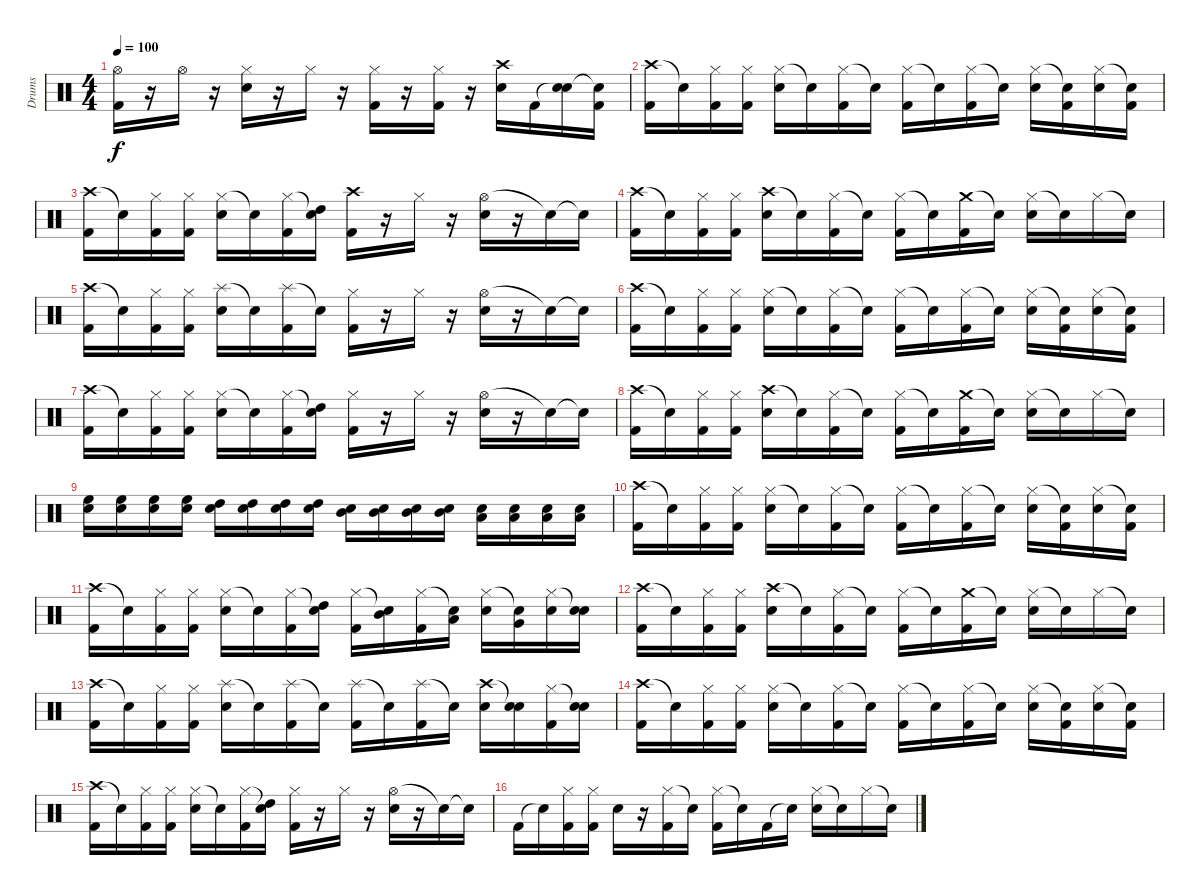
\track ("Drums" "Drums") {instrument percussion}
\staff {score}
\articulation defaults
\ts (4 4)
\tempo 100
\clef neutral
\ks c
("Hi-Hat (open)" "Kick (hit) 2").16{dy f} r.16 "Hi-Hat (open)".16 r.16 ("Hi-Hat (closed)" "Electric Snare (hit)").16 r.16 "Hi-Hat (closed)".16 r.16 ("Hi-Hat (closed)" "Kick (hit) 2").16 r.16 ("Hi-Hat (closed)" "Kick (hit) 2").16 r.16 ("Crash high (hit)" "Electric Snare (hit)").16 "Kick (hit) 2".16 ("Snare (hit)"{t} "Electric Snare (hit)").16 ("Snare (hit)"{t} "Kick (hit) 2").16 |
("Crash high (hit)" "Kick (hit) 2").16 "Snare (hit)"{t}.16 ("Hi-Hat (closed)" "Kick (hit) 2").16 ("Hi-Hat (closed)" "Kick (hit) 2").16 ("Hi-Hat (closed)" "Electric Snare (hit)").16 "Snare (hit)"{t}.16 ("Hi-Hat (closed)" "Kick (hit) 2").16 "Snare (hit)"{t}.16 ("Hi-Hat (closed)" "Kick (hit) 2").16 "Snare (hit)"{t}.16 ("Hi-Hat (closed)" "Kick (hit) 2").16 "Snare (hit)"{t}.16 ("Hi-Hat (closed)" "Electric Snare (hit)").16 ("Snare (hit)"{t} "Kick (hit) 2").16 ("Hi-Hat (closed)" "Electric Snare (hit)").16 ("Snare (hit)"{t} "Kick (hit) 2").16 |
("Crash high (hit)" "Kick (hit) 2").16 "Snare (hit)"{t}.16 ("Hi-Hat (closed)" "Kick (hit) 2").16 ("Hi-Hat (closed)" "Kick (hit) 2").16 ("Hi-Hat (closed)" "Electric Snare (hit)").16 "Snare (hit)"{t}.16 ("Hi-Hat (closed)" "Kick (hit) 2").16 ("Snare (hit)"{t} "High Tom (hit)").16 ("Crash high (hit)" "Kick (hit) 2").16 r.16 "Hi-Hat (closed)".16 r.16 ("Hi-Hat (open)" "Electric Snare (hit)").16 r.16 "Snare (hit)"{t}.16 "Snare (hit)"{t}.16 |
("Crash high (hit)" "Kick (hit) 2").16 "Snare (hit)"{t}.16 ("Hi-Hat (closed)" "Kick (hit) 2").16 ("Hi-Hat (closed)" "Kick (hit) 2").16 ("Crash high (hit)" "Electric Snare (hit)").16 "Snare (hit)"{t}.16 ("Hi-Hat (closed)" "Kick (hit) 2").16 "Snare (hit)"{t}.16 ("Hi-Hat (closed)" "Kick (hit) 2").16 "Snare (hit)"{t}.16 ("Crash medium (hit)" "Kick (hit) 2").16 "Snare (hit)"{t}.16 ("Hi-Hat (closed)" "Electric Snare (hit)").16 "Snare (hit)"{t}.16 "Hi-Hat (closed)".16 "Snare (hit)"{t}.16 |
("Crash high (hit)" "Kick (hit) 2").16 "Snare (hit)"{t}.16 ("Hi-Hat (closed)" "Kick (hit) 2").16 ("Hi-Hat (closed)" "Kick (hit) 2").16 ("Splash (hit)" "Electric Snare (hit)").16 "Snare (hit)"{t}.16 ("Splash (hit)" "Kick (hit) 2").16 "Snare (hit)"{t}.16 ("Hi-Hat (closed)" "Kick (hit) 2").16 r.16 "Hi-Hat (closed)".16 r.16 ("Hi-Hat (open)" "Electric Snare (hit)").16 r.16 "Snare (hit)"{t}.16 "Snare (hit)"{t}.16 |
("Crash high (hit)" "Kick (hit) 2").16 "Snare (hit)"{t}.16 ("Hi-Hat (closed)" "Kick (hit) 2").16 ("Hi-Hat (closed)" "Kick (hit) 2").16 ("Hi-Hat (closed)" "Electric Snare (hit)").16 "Snare (hit)"{t}.16 ("Hi-Hat (closed)" "Kick (hit) 2").16 "Snare (hit)"{t}.16 ("Hi-Hat (closed)" "Kick (hit) 2").16 "Snare (hit)"{t}.16 ("Hi-Hat (closed)" "Kick (hit) 2").16 "Snare (hit)"{t}.16 ("Hi-Hat (closed)" "Electric Snare (hit)").16 ("Snare (hit)"{t} "Kick (hit) 2").16 ("Hi-Hat (closed)" "Electric Snare (hit)").16 ("Snare (hit)"{t} "Kick (hit) 2").16 |
("Crash high (hit)" "Kick (hit) 2").16 "Snare (hit)"{t}.16 ("Hi-Hat (closed)" "Kick (hit) 2").16 ("Hi-Hat (closed)" "Kick (hit) 2").16 ("Hi-Hat (closed)" "Electric Snare (hit)").16 "Snare (hit)"{t}.16 ("Hi-Hat (closed)" "Kick (hit) 2").16 ("Snare (hit)"{t} "High Tom (hit)").16 ("Hi-Hat (closed)" "Kick (hit) 2").16 r.16 "Hi-Hat (closed)".16 r.16 ("Hi-Hat (open)" "Electric Snare (hit)").16 r.16 "Snare (hit)"{t}.16 "Snare (hit)"{t}.16 |
("Crash high (hit)" "Kick (hit) 2").16 "Snare (hit)"{t}.16 ("Hi-Hat (closed)" "Kick (hit) 2").16 ("Hi-Hat (closed)" "Kick (hit) 2").16 ("Crash high (hit)" "Electric Snare (hit)").16 "Snare (hit)"{t}.16 ("Hi-Hat (closed)" "Kick (hit) 2").16 "Snare (hit)"{t}.16 ("Hi-Hat (closed)" "Kick (hit) 2").16 "Snare (hit)"{t}.16 ("Crash medium (hit)" "Kick (hit) 2").16 "Snare (hit)"{t}.16 ("Hi-Hat (closed)" "Electric Snare (hit)").16 "Snare (hit)"{t}.16 "Hi-Hat (closed)".16 "Snare (hit)"{t}.16 |
("High Floor Tom (hit)" "Electric Snare (hit)").16 ("High Floor Tom (hit)" "Electric Snare (hit)").16 ("High Floor Tom (hit)" "Electric Snare (hit)").16 ("High Floor Tom (hit)" "Electric Snare (hit)").16 ("High Tom (hit)" "Electric Snare (hit)").16 ("High Tom (hit)" "Electric Snare (hit)").16 ("High Tom (hit)" "Electric Snare (hit)").16 ("High Tom (hit)" "Electric Snare (hit)").16 ("Mid Tom (hit)" "Electric Snare (hit)").16 ("Mid Tom (hit)" "Electric Snare (hit)").16 ("Mid Tom (hit)" "Electric Snare (hit)").16 ("Mid Tom (hit)" "Electric Snare (hit)").16 ("Low Tom (hit)" "Electric Snare (hit)").16 ("Low Tom (hit)" "Electric Snare (hit)").16 ("Low Tom (hit)" "Electric Snare (hit)").16 ("Low Tom (hit)" "Electric Snare (hit)").16 |
("Crash high (hit)" "Kick (hit) 2").16 "Snare (hit)"{t}.16 ("Hi-Hat (closed)" "Kick (hit) 2").16 ("Hi-Hat (closed)" "Kick (hit) 2").16 ("Hi-Hat (closed)" "Electric Snare (hit)").16 "Snare (hit)"{t}.16 ("Hi-Hat (closed)" "Kick (hit) 2").16 "Snare (hit)"{t}.16 ("Hi-Hat (closed)" "Kick (hit) 2").16 "Snare (hit)"{t}.16 ("Hi-Hat (closed)" "Kick (hit) 2").16 "Snare (hit)"{t}.16 ("Hi-Hat (closed)" "Electric Snare (hit)").16 ("Snare (hit)"{t} "Kick (hit) 2").16 ("Hi-Hat (closed)" "Electric Snare (hit)").16 ("Snare (hit)"{t} "Kick (hit) 2").16 |
("Crash high (hit)" "Kick (hit) 2").16 "Snare (hit)"{t}.16 ("Hi-Hat (closed)" "Kick (hit) 2").16 ("Hi-Hat (closed)" "Kick (hit) 2").16 ("Hi-Hat (closed)" "Electric Snare (hit)").16 "Snare (hit)"{t}.16 ("Hi-Hat (closed)" "Kick (hit) 2").16 ("Snare (hit)"{t} "High Tom (hit)").16 ("Hi-Hat (closed)" "Kick (hit) 2").16 ("Snare (hit)"{t} "Mid Tom (hit)").16 ("Hi-Hat (closed)" "Kick (hit) 2").16 ("Snare (hit)"{t} "Low Tom (hit)").16 ("Hi-Hat (closed)" "Electric Snare (hit)").16 ("Snare (hit)"{t} "Very Low Tom (hit)").16 ("Hi-Hat (closed)" "Electric Snare (hit)").16 ("Snare (hit)"{t} "Electric Snare (hit)").16 |
("Crash high (hit)" "Kick (hit) 2").16 "Snare (hit)"{t}.16 ("Hi-Hat (closed)" "Kick (hit) 2").16 ("Hi-Hat (closed)" "Kick (hit) 2").16 ("Crash high (hit)" "Electric Snare (hit)").16 "Snare (hit)"{t}.16 ("Hi-Hat (closed)" "Kick (hit) 2").16 "Snare (hit)"{t}.16 ("Hi-Hat (closed)" "Kick (hit) 2").16 "Snare (hit)"{t}.16 ("Crash medium (hit)" "Kick (hit) 2").16 "Snare (hit)"{t}.16 ("Hi-Hat (closed)" "Electric Snare (hit)").16 "Snare (hit)"{t}.16 "Hi-Hat (closed)".16 "Snare (hit)"{t}.16 |
("Crash high (hit)" "Kick (hit) 2").16 "Snare (hit)"{t}.16 ("Hi-Hat (closed)" "Kick (hit) 2").16 ("Hi-Hat (closed)" "Kick (hit) 2").16 ("Splash (hit)" "Electric Snare (hit)").16 "Snare (hit)"{t}.16 ("Splash (hit)" "Kick (hit) 2").16 "Snare (hit)"{t}.16 ("Splash (hit)" "Kick (hit) 2").16 "Snare (hit)"{t}.16 ("Splash (hit)" "Kick (hit) 2").16 "Snare (hit)"{t}.16 ("Crash high (hit)" "Electric Snare (hit)").16 ("Snare (hit)"{t} "Electric Snare (hit)").16 ("Hi-Hat (closed)" "Kick (hit) 2").16 ("Snare (hit)"{t} "Electric Snare (hit)").16 |
("Crash high (hit)" "Kick (hit) 2").16 "Snare (hit)"{t}.16 ("Hi-Hat (closed)" "Kick (hit) 2").16 ("Hi-Hat (closed)" "Kick (hit) 2").16 ("Hi-Hat (closed)" "Electric Snare (hit)").16 "Snare (hit)"{t}.16 ("Hi-Hat (closed)" "Kick (hit) 2").16 "Snare (hit)"{t}.16 ("Hi-Hat (closed)" "Kick (hit) 2").16 "Snare (hit)"{t}.16 ("Hi-Hat (closed)" "Kick (hit) 2").16 "Snare (hit)"{t}.16 ("Hi-Hat (closed)" "Electric Snare (hit)").16 ("Snare (hit)"{t} "Kick (hit) 2").16 ("Hi-Hat (closed)" "Electric Snare (hit)").16 ("Snare (hit)"{t} "Kick (hit) 2").16 |
("Crash high (hit)" "Kick (hit) 2").16 "Snare (hit)"{t}.16 ("Hi-Hat (closed)" "Kick (hit) 2").16 ("Hi-Hat (closed)" "Kick (hit) 2").16 ("Hi-Hat (closed)" "Electric Snare (hit)").16 "Snare (hit)"{t}.16 ("Hi-Hat (closed)" "Kick (hit) 2").16 ("Snare (hit)"{t} "High Tom (hit)").16 ("Hi-Hat (closed)" "Kick (hit) 2").16 r.16 "Hi-Hat (closed)".16 r.16 ("Hi-Hat (open)" "Electric Snare (hit)").16 r.16 "Snare (hit)"{t}.16 "Snare (hit)"{t}.16 |
"Kick (hit) 2".16 "Snare (hit)"{t}.16 ("Hi-Hat (closed)" "Kick (hit) 2").16 ("Hi-Hat (closed)" "Kick (hit) 2").16 "Electric Snare (hit)".16 r.16 ("Hi-Hat (closed)" "Kick (hit) 2").16 "Snare (hit)"{t}.16 ("Hi-Hat (closed)" "Kick (hit) 2").16 "Snare (hit)"{t}.16 "Kick (hit) 2".16 "Snare (hit)"{t}.16 ("Hi-Hat (closed)" "Electric Snare (hit)").16 "Snare (hit)"{t}.16 "Hi-Hat (closed)".16 "Snare (hit)"{t}.16
